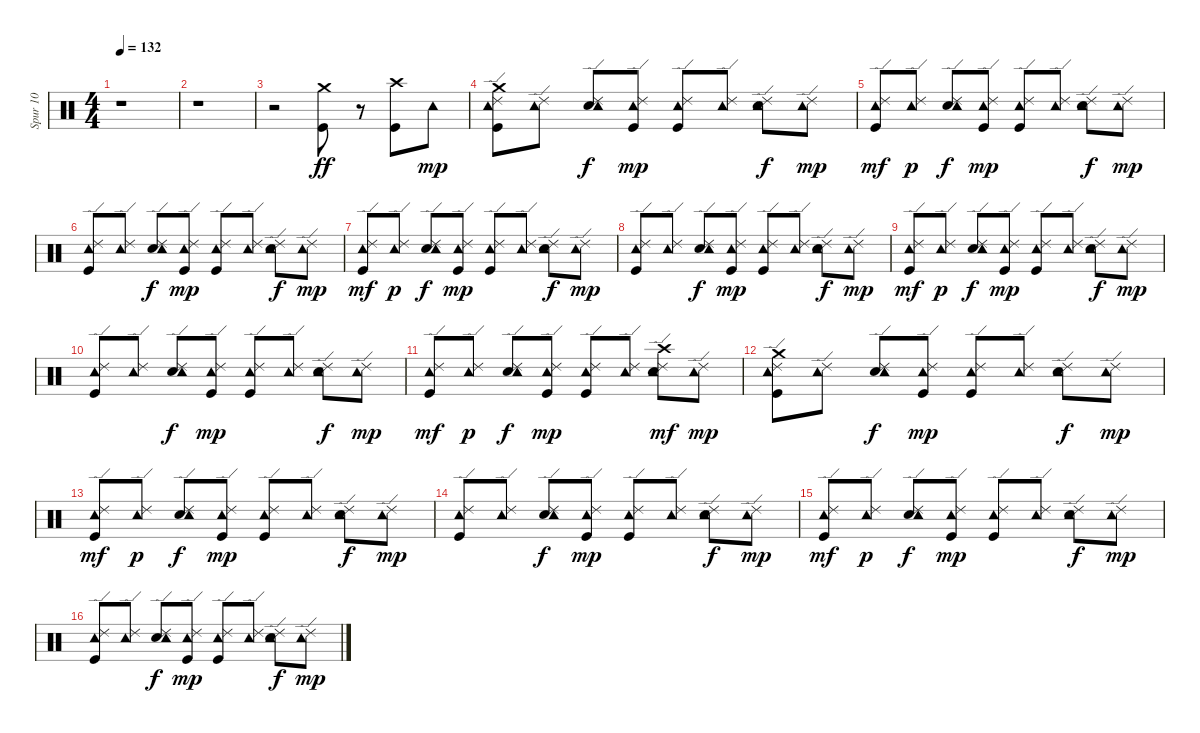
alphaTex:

\track ("Spur 10" "Spur 10") {instrument percussion}
\staff {score}
\articulation defaults
\ts (4 4)
\tempo 132
\clef neutral
\ks c
r.1{dy ff} |
r.1 |
r.2 ("Crash medium (hit)" "Kick (hit)").8 r.8 ("Crash high (hit)" "Kick (hit)").8 "Tambourine (hit)".8{dy mp} |
("Crash medium (hit)" "Kick (hit)" "Ride (edge) 2" "Tambourine (hit)").8 ("Ride (edge) 2" "Tambourine (hit)").8 ("Electric Snare (hit)" "Ride (edge) 2" "Tambourine (hit)").8{dy f} ("Kick (hit)" "Ride (edge) 2" "Tambourine (hit)").8{dy mp} ("Kick (hit)" "Ride (edge) 2" "Tambourine (hit)").8 ("Ride (edge) 2" "Tambourine (hit)").8 ("Electric Snare (hit)" "Ride (edge) 2" "Tambourine (hit)").8{dy f} ("Ride (edge) 2" "Tambourine (hit)").8{dy mp} |
("Kick (hit)" "Ride (edge) 2" "Tambourine (hit)").8{dy mf} ("Ride (edge) 2" "Tambourine (hit)").8{dy p} ("Electric Snare (hit)" "Ride (edge) 2" "Tambourine (hit)").8{dy f} ("Kick (hit)" "Ride (edge) 2" "Tambourine (hit)").8{dy mp} ("Kick (hit)" "Ride (edge) 2" "Tambourine (hit)").8 ("Ride (edge) 2" "Tambourine (hit)").8 ("Electric Snare (hit)" "Ride (edge) 2" "Tambourine (hit)").8{dy f} ("Ride (edge) 2" "Tambourine (hit)").8{dy mp} |
("Kick (hit)" "Ride (edge) 2" "Tambourine (hit)").8 ("Ride (edge) 2" "Tambourine (hit)").8 ("Electric Snare (hit)" "Ride (edge) 2" "Tambourine (hit)").8{dy f} ("Kick (hit)" "Ride (edge) 2" "Tambourine (hit)").8{dy mp} ("Kick (hit)" "Ride (edge) 2" "Tambourine (hit)").8 ("Ride (edge) 2" "Tambourine (hit)").8 ("Electric Snare (hit)" "Ride (edge) 2" "Tambourine (hit)").8{dy f} ("Ride (edge) 2" "Tambourine (hit)").8{dy mp} |
("Kick (hit)" "Ride (edge) 2" "Tambourine (hit)").8{dy mf} ("Ride (edge) 2" "Tambourine (hit)").8{dy p} ("Electric Snare (hit)" "Ride (edge) 2" "Tambourine (hit)").8{dy f} ("Kick (hit)" "Ride (edge) 2" "Tambourine (hit)").8{dy mp} ("Kick (hit)" "Ride (edge) 2" "Tambourine (hit)").8 ("Ride (edge) 2" "Tambourine (hit)").8 ("Electric Snare (hit)" "Ride (edge) 2" "Tambourine (hit)").8{dy f} ("Ride (edge) 2" "Tambourine (hit)").8{dy mp} |
("Kick (hit)" "Ride (edge) 2" "Tambourine (hit)").8 ("Ride (edge) 2" "Tambourine (hit)").8 ("Electric Snare (hit)" "Ride (edge) 2" "Tambourine (hit)").8{dy f} ("Kick (hit)" "Ride (edge) 2" "Tambourine (hit)").8{dy mp} ("Kick (hit)" "Ride (edge) 2" "Tambourine (hit)").8 ("Ride (edge) 2" "Tambourine (hit)").8 ("Electric Snare (hit)" "Ride (edge) 2" "Tambourine (hit)").8{dy f} ("Ride (edge) 2" "Tambourine (hit)").8{dy mp} |
("Kick (hit)" "Ride (edge) 2" "Tambourine (hit)").8{dy mf} ("Ride (edge) 2" "Tambourine (hit)").8{dy p} ("Electric Snare (hit)" "Ride (edge) 2" "Tambourine (hit)").8{dy f} ("Kick (hit)" "Ride (edge) 2" "Tambourine (hit)").8{dy mp} ("Kick (hit)" "Ride (edge) 2" "Tambourine (hit)").8 ("Ride (edge) 2" "Tambourine (hit)").8 ("Electric Snare (hit)" "Ride (edge) 2" "Tambourine (hit)").8{dy f} ("Ride (edge) 2" "Tambourine (hit)").8{dy mp} |
("Kick (hit)" "Ride (edge) 2" "Tambourine (hit)").8 ("Ride (edge) 2" "Tambourine (hit)").8 ("Electric Snare (hit)" "Ride (edge) 2" "Tambourine (hit)").8{dy f} ("Kick (hit)" "Ride (edge) 2" "Tambourine (hit)").8{dy mp} ("Kick (hit)" "Ride (edge) 2" "Tambourine (hit)").8 ("Ride (edge) 2" "Tambourine (hit)").8 ("Electric Snare (hit)" "Ride (edge) 2" "Tambourine (hit)").8{dy f} ("Ride (edge) 2" "Tambourine (hit)").8{dy mp} |
("Kick (hit)" "Ride (edge) 2" "Tambourine (hit)").8{dy mf} ("Ride (edge) 2" "Tambourine (hit)").8{dy p} ("Electric Snare (hit)" "Ride (edge) 2" "Tambourine (hit)").8{dy f} ("Kick (hit)" "Ride (edge) 2" "Tambourine (hit)").8{dy mp} ("Kick (hit)" "Ride (edge) 2" "Tambourine (hit)").8 ("Ride (edge) 2" "Tambourine (hit)").8 ("Electric Snare (hit)" "Ride (edge) 2" "Crash high (hit)" "Tambourine (hit)").8{dy mf} ("Ride (edge) 2" "Tambourine (hit)").8{dy mp} |
("Crash medium (hit)" "Ride (edge) 2" "Kick (hit)" "Tambourine (hit)").8 ("Ride (edge) 2" "Tambourine (hit)").8 ("Electric Snare (hit)" "Ride (edge) 2" "Tambourine (hit)").8{dy f} ("Kick (hit)" "Ride (edge) 2" "Tambourine (hit)").8{dy mp} ("Kick (hit)" "Ride (edge) 2" "Tambourine (hit)").8 ("Ride (edge) 2" "Tambourine (hit)").8 ("Electric Snare (hit)" "Ride (edge) 2" "Tambourine (hit)").8{dy f} ("Ride (edge) 2" "Tambourine (hit)").8{dy mp} |
("Ride (edge) 2" "Kick (hit)" "Tambourine (hit)").8{dy mf} ("Ride (edge) 2" "Tambourine (hit)").8{dy p} ("Electric Snare (hit)" "Ride (edge) 2" "Tambourine (hit)").8{dy f} ("Ride (edge) 2" "Kick (hit)" "Tambourine (hit)").8{dy mp} ("Ride (edge) 2" "Kick (hit)" "Tambourine (hit)").8 ("Ride (edge) 2" "Tambourine (hit)").8 ("Electric Snare (hit)" "Ride (edge) 2" "Tambourine (hit)").8{dy f} ("Ride (edge) 2" "Tambourine (hit)").8{dy mp} |
("Kick (hit)" "Ride (edge) 2" "Tambourine (hit)").8 ("Ride (edge) 2" "Tambourine (hit)").8 ("Electric Snare (hit)" "Ride (edge) 2" "Tambourine (hit)").8{dy f} ("Kick (hit)" "Ride (edge) 2" "Tambourine (hit)").8{dy mp} ("Kick (hit)" "Ride (edge) 2" "Tambourine (hit)").8 ("Ride (edge) 2" "Tambourine (hit)").8 ("Electric Snare (hit)" "Ride (edge) 2" "Tambourine (hit)").8{dy f} ("Ride (edge) 2" "Tambourine (hit)").8{dy mp} |
("Kick (hit)" "Ride (edge) 2" "Tambourine (hit)").8{dy mf} ("Ride (edge) 2" "Tambourine (hit)").8{dy p} ("Electric Snare (hit)" "Ride (edge) 2" "Tambourine (hit)").8{dy f} ("Kick (hit)" "Ride (edge) 2" "Tambourine (hit)").8{dy mp} ("Kick (hit)" "Ride (edge) 2" "Tambourine (hit)").8 ("Ride (edge) 2" "Tambourine (hit)").8 ("Electric Snare (hit)" "Ride (edge) 2" "Tambourine (hit)").8{dy f} ("Ride (edge) 2" "Tambourine (hit)").8{dy mp} |
("Kick (hit)" "Ride (edge) 2" "Tambourine (hit)").8 ("Ride (edge) 2" "Tambourine (hit)").8 ("Electric Snare (hit)" "Ride (edge) 2" "Tambourine (hit)").8{dy f} ("Kick (hit)" "Ride (edge) 2" "Tambourine (hit)").8{dy mp} ("Kick (hit)" "Ride (edge) 2" "Tambourine (hit)").8 ("Ride (edge) 2" "Tambourine (hit)").8 ("Electric Snare (hit)" "Ride (edge) 2" "Tambourine (hit)").8{dy f} ("Ride (edge) 2" "Tambourine (hit)").8{dy mp}
